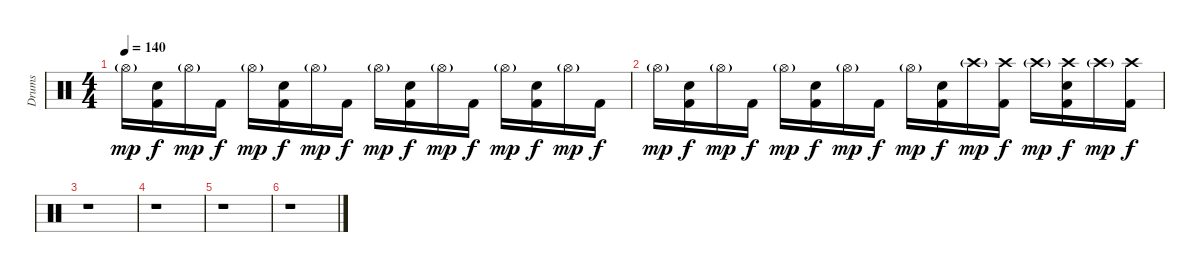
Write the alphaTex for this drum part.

\track ("Drums" "Drums") {instrument percussion}
\staff {score}
\articulation defaults
\ts (4 4)
\tempo 140
\clef neutral
\ks c "Hi-Hat (open)"{g}.16{dy mp}
("Snare (hit) 2" "Kick (hit) 2").16{dy f} "Hi-Hat (open)"{g}.16{dy mp} "Kick (hit) 2".16{dy f} "Hi-Hat (open)"{g}.16{dy mp} ("Snare (hit) 2" "Kick (hit) 2").16{dy f} "Hi-Hat (open)"{g}.16{dy mp} "Kick (hit) 2".16{dy f} "Hi-Hat (open)"{g}.16{dy mp} ("Snare (hit) 2" "Kick (hit) 2").16{dy f} "Hi-Hat (open)"{g}.16{dy mp} "Kick (hit) 2".16{dy f} "Hi-Hat (open)"{g}.16{dy mp} ("Snare (hit) 2" "Kick (hit) 2").16{dy f} "Hi-Hat (open)"{g}.16{dy mp} "Kick (hit) 2".16{dy f} |
"Hi-Hat (open)"{g}.16{dy mp} ("Snare (hit) 2" "Kick (hit) 2").16{dy f} "Hi-Hat (open)"{g}.16{dy mp} "Kick (hit) 2".16{dy f} "Hi-Hat (open)"{g}.16{dy mp} ("Snare (hit) 2" "Kick (hit) 2").16{dy f} "Hi-Hat (open)"{g}.16{dy mp} "Kick (hit) 2".16{dy f} "Hi-Hat (open)"{g}.16{dy mp} ("Snare (hit) 2" "Kick (hit) 2").16{dy f} "Crash high (hit)"{g}.16{dy mp} ("Crash high (hit)" "Kick (hit) 2").16{dy f} "Crash high (hit)"{g}.16{dy mp} ("Crash high (hit)" "Snare (hit) 2" "Kick (hit) 2").16{dy f} "Crash high (hit)"{g}.16{dy mp} ("Crash high (hit)" "Kick (hit) 2").16{dy f} |
r.1 |
r.1 |
r.1 |
r.1
